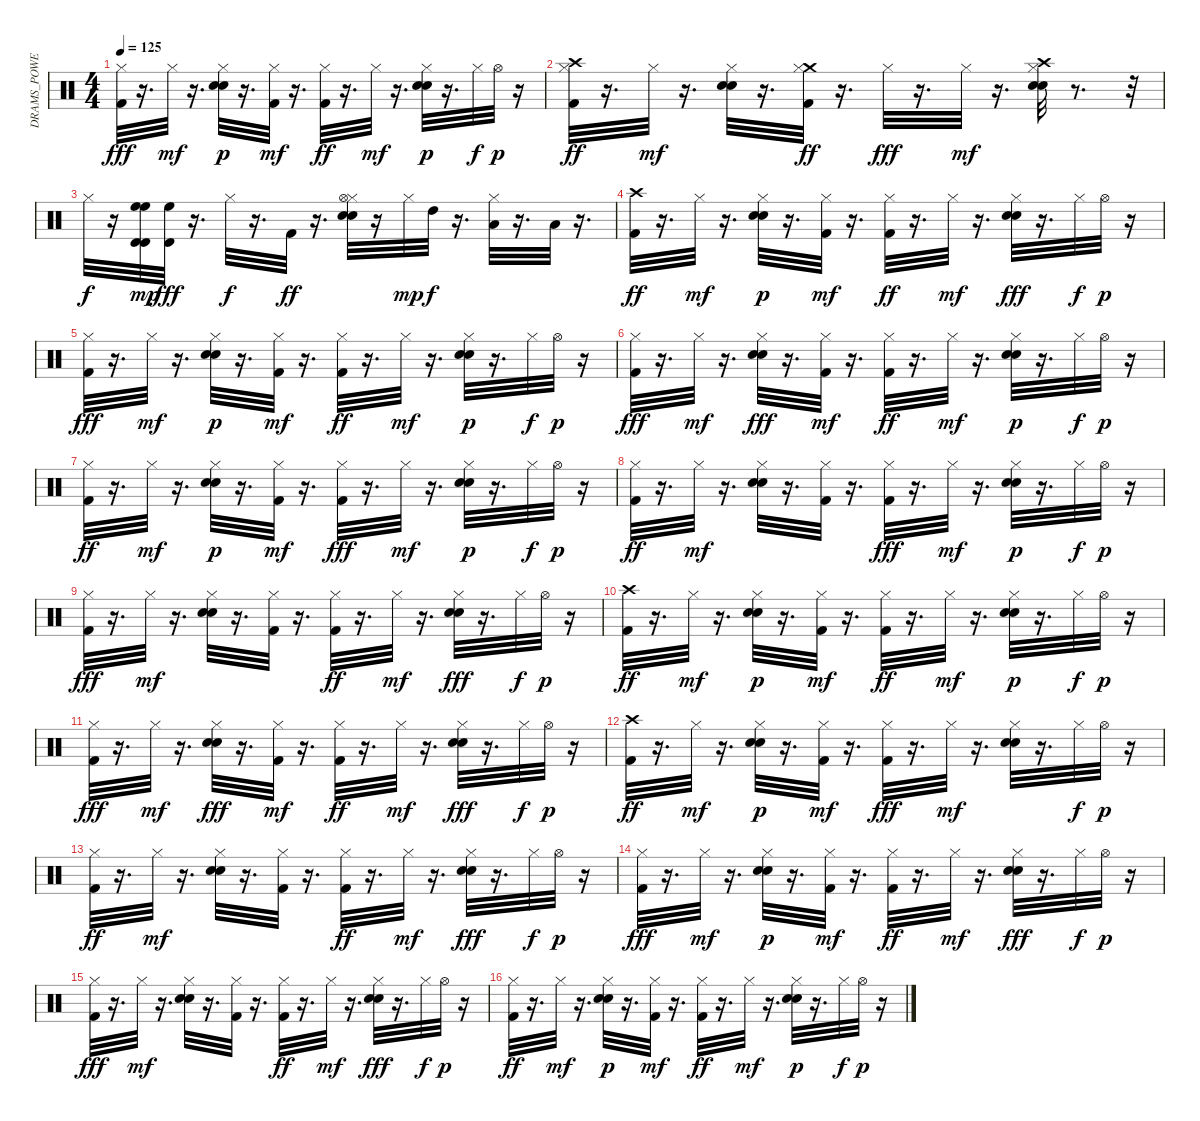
\track ("DRAMS_POWER" "DRAMS_POWE") {instrument percussion}
\staff {score}
\articulation defaults
\ts (4 4)
\tempo 125
\clef neutral
\ks c
("Kick (hit) 2" "Hi-Hat (closed)").32{dy fff} r.16{d} "Hi-Hat (closed)".32{dy mf} r.16{d} ("Electric Snare (hit)" "Hi-Hat (closed)" "Snare (hit) 2").32{dy p} r.16{d} ("Hi-Hat (closed)" "Kick (hit) 2").32{dy mf} r.16{d} ("Hi-Hat (closed)" "Kick (hit) 2").32{dy ff} r.16{d} "Hi-Hat (closed)".32{dy mf} r.16{d} ("Hi-Hat (closed)" "Electric Snare (hit)" "Snare (hit) 2").32{dy p} r.16{d} "Hi-Hat (closed)".32{dy f} "Hi-Hat (open)".32{dy p} r.16 |
("Crash high (hit)" "Hi-Hat (closed)" "Kick (hit) 2").32{dy ff} r.16{d} "Hi-Hat (closed)".32{dy mf} r.16{d} ("Snare (hit) 2" "Electric Snare (hit)" "Hi-Hat (closed)").32 r.16{d} ("Crash medium (hit)" "Hi-Hat (closed)" "Kick (hit) 2").32{dy ff} r.16{d} "Hi-Hat (closed)".32{dy fff} r.16{d} "Hi-Hat (closed)".32{dy mf} r.16{d} ("Crash high (hit)" "Electric Snare (hit)" "Snare (hit) 2" "Hi-Hat (closed)").32 r.8{d} r.32 |
"Hi-Hat (closed)".32{dy f} r.16 ("High Floor Tom (hit)" "Timbale high (hit)" "High Floor Tom (hit)" "Timbale high (hit)").32{dy mp} ("Timbale high (hit)" "High Floor Tom (hit)").32{dy fff} r.16{d} "Hi-Hat (closed)".32{dy f} r.16{d} "Kick (hit) 2".32{dy ff} r.16{d} ("Hi-Hat (closed)" "Snare (hit) 2" "Electric Snare (hit)" "Hi-Hat (open)").32 r.16 "Hi-Hat (closed)".32{dy mp} "High Tom (hit)".32{dy f} r.16{d} ("Hi-Hat (closed)" "Low Tom (hit)").32 r.16{d} "Low Floor Tom (hit)".32 r.16{d} |
("Kick (hit) 2" "Crash high (hit)").32{dy ff} r.16{d} "Hi-Hat (closed)".32{dy mf} r.16{d} ("Hi-Hat (closed)" "Electric Snare (hit)" "Snare (hit) 2").32{dy p} r.16{d} ("Hi-Hat (closed)" "Kick (hit) 2").32{dy mf} r.16{d} ("Hi-Hat (closed)" "Kick (hit) 2").32{dy ff} r.16{d} "Hi-Hat (closed)".32{dy mf} r.16{d} ("Snare (hit) 2" "Hi-Hat (closed)" "Electric Snare (hit)").32{dy fff} r.16{d} "Hi-Hat (closed)".32{dy f} "Hi-Hat (open)".32{dy p} r.16 |
("Kick (hit) 2" "Hi-Hat (closed)").32{dy fff} r.16{d} "Hi-Hat (closed)".32{dy mf} r.16{d} ("Electric Snare (hit)" "Hi-Hat (closed)" "Snare (hit) 2").32{dy p} r.16{d} ("Hi-Hat (closed)" "Kick (hit) 2").32{dy mf} r.16{d} ("Hi-Hat (closed)" "Kick (hit) 2").32{dy ff} r.16{d} "Hi-Hat (closed)".32{dy mf} r.16{d} ("Hi-Hat (closed)" "Electric Snare (hit)" "Snare (hit) 2").32{dy p} r.16{d} "Hi-Hat (closed)".32{dy f} "Hi-Hat (open)".32{dy p} r.16 |
("Kick (hit) 2" "Hi-Hat (closed)").32{dy fff} r.16{d} "Hi-Hat (closed)".32{dy mf} r.16{d} ("Hi-Hat (closed)" "Snare (hit) 2" "Electric Snare (hit)").32{dy fff} r.16{d} ("Hi-Hat (closed)" "Kick (hit) 2").32{dy mf} r.16{d} ("Hi-Hat (closed)" "Kick (hit) 2").32{dy ff} r.16{d} "Hi-Hat (closed)".32{dy mf} r.16{d} ("Hi-Hat (closed)" "Electric Snare (hit)" "Snare (hit) 2").32{dy p} r.16{d} "Hi-Hat (closed)".32{dy f} "Hi-Hat (open)".32{dy p} r.16 |
("Hi-Hat (closed)" "Kick (hit) 2").32{dy ff} r.16{d} "Hi-Hat (closed)".32{dy mf} r.16{d} ("Hi-Hat (closed)" "Electric Snare (hit)" "Snare (hit) 2").32{dy p} r.16{d} ("Hi-Hat (closed)" "Kick (hit) 2").32{dy mf} r.16{d} ("Kick (hit) 2" "Hi-Hat (closed)").32{dy fff} r.16{d} "Hi-Hat (closed)".32{dy mf} r.16{d} ("Electric Snare (hit)" "Hi-Hat (closed)" "Snare (hit) 2").32{dy p} r.16{d} "Hi-Hat (closed)".32{dy f} "Hi-Hat (open)".32{dy p} r.16 |
("Hi-Hat (closed)" "Kick (hit) 2").32{dy ff} r.16{d} "Hi-Hat (closed)".32{dy mf} r.16{d} ("Snare (hit) 2" "Electric Snare (hit)" "Hi-Hat (closed)").32 r.16{d} ("Hi-Hat (closed)" "Kick (hit) 2").32 r.16{d} ("Kick (hit) 2" "Hi-Hat (closed)").32{dy fff} r.16{d} "Hi-Hat (closed)".32{dy mf} r.16{d} ("Electric Snare (hit)" "Hi-Hat (closed)" "Snare (hit) 2").32{dy p} r.16{d} "Hi-Hat (closed)".32{dy f} "Hi-Hat (open)".32{dy p} r.16 |
("Kick (hit) 2" "Hi-Hat (closed)").32{dy fff} r.16{d} "Hi-Hat (closed)".32{dy mf} r.16{d} ("Snare (hit) 2" "Electric Snare (hit)" "Hi-Hat (closed)").32 r.16{d} ("Hi-Hat (closed)" "Kick (hit) 2").32 r.16{d} ("Hi-Hat (closed)" "Kick (hit) 2").32{dy ff} r.16{d} "Hi-Hat (closed)".32{dy mf} r.16{d} ("Snare (hit) 2" "Hi-Hat (closed)" "Electric Snare (hit)").32{dy fff} r.16{d} "Hi-Hat (closed)".32{dy f} "Hi-Hat (open)".32{dy p} r.16 |
("Crash high (hit)" "Kick (hit) 2").32{dy ff} r.16{d} "Hi-Hat (closed)".32{dy mf} r.16{d} ("Electric Snare (hit)" "Hi-Hat (closed)" "Snare (hit) 2").32{dy p} r.16{d} ("Kick (hit) 2" "Hi-Hat (closed)").32{dy mf} r.16{d} ("Hi-Hat (closed)" "Kick (hit) 2").32{dy ff} r.16{d} "Hi-Hat (closed)".32{dy mf} r.16{d} ("Hi-Hat (closed)" "Electric Snare (hit)" "Snare (hit) 2").32{dy p} r.16{d} "Hi-Hat (closed)".32{dy f} "Hi-Hat (open)".32{dy p} r.16 |
("Kick (hit) 2" "Hi-Hat (closed)").32{dy fff} r.16{d} "Hi-Hat (closed)".32{dy mf} r.16{d} ("Hi-Hat (closed)" "Snare (hit) 2" "Electric Snare (hit)").32{dy fff} r.16{d} ("Kick (hit) 2" "Hi-Hat (closed)").32{dy mf} r.16{d} ("Hi-Hat (closed)" "Kick (hit) 2").32{dy ff} r.16{d} "Hi-Hat (closed)".32{dy mf} r.16{d} ("Snare (hit) 2" "Hi-Hat (closed)" "Electric Snare (hit)").32{dy fff} r.16{d} "Hi-Hat (closed)".32{dy f} "Hi-Hat (open)".32{dy p} r.16 |
("Crash high (hit)" "Kick (hit) 2").32{dy ff} r.16{d} "Hi-Hat (closed)".32{dy mf} r.16{d} ("Electric Snare (hit)" "Hi-Hat (closed)" "Snare (hit) 2").32{dy p} r.16{d} ("Kick (hit) 2" "Hi-Hat (closed)").32{dy mf} r.16{d} ("Kick (hit) 2" "Hi-Hat (closed)").32{dy fff} r.16{d} "Hi-Hat (closed)".32{dy mf} r.16{d} ("Snare (hit) 2" "Electric Snare (hit)" "Hi-Hat (closed)").32 r.16{d} "Hi-Hat (closed)".32{dy f} "Hi-Hat (open)".32{dy p} r.16 |
("Hi-Hat (closed)" "Kick (hit) 2").32{dy ff} r.16{d} "Hi-Hat (closed)".32{dy mf} r.16{d} ("Snare (hit) 2" "Electric Snare (hit)" "Hi-Hat (closed)").32 r.16{d} ("Hi-Hat (closed)" "Kick (hit) 2").32 r.16{d} ("Hi-Hat (closed)" "Kick (hit) 2").32{dy ff} r.16{d} "Hi-Hat (closed)".32{dy mf} r.16{d} ("Snare (hit) 2" "Hi-Hat (closed)" "Electric Snare (hit)").32{dy fff} r.16{d} "Hi-Hat (closed)".32{dy f} "Hi-Hat (open)".32{dy p} r.16 |
("Kick (hit) 2" "Hi-Hat (closed)").32{dy fff} r.16{d} "Hi-Hat (closed)".32{dy mf} r.16{d} ("Electric Snare (hit)" "Hi-Hat (closed)" "Snare (hit) 2").32{dy p} r.16{d} ("Kick (hit) 2" "Hi-Hat (closed)").32{dy mf} r.16{d} ("Hi-Hat (closed)" "Kick (hit) 2").32{dy ff} r.16{d} "Hi-Hat (closed)".32{dy mf} r.16{d} ("Hi-Hat (closed)" "Snare (hit) 2" "Electric Snare (hit)").32{dy fff} r.16{d} "Hi-Hat (closed)".32{dy f} "Hi-Hat (open)".32{dy p} r.16 |
("Kick (hit) 2" "Hi-Hat (closed)").32{dy fff} r.16{d} "Hi-Hat (closed)".32{dy mf} r.16{d} ("Electric Snare (hit)" "Snare (hit) 2" "Hi-Hat (closed)").32 r.16{d} ("Kick (hit) 2" "Hi-Hat (closed)").32 r.16{d} ("Hi-Hat (closed)" "Kick (hit) 2").32{dy ff} r.16{d} "Hi-Hat (closed)".32{dy mf} r.16{d} ("Hi-Hat (closed)" "Snare (hit) 2" "Electric Snare (hit)").32{dy fff} r.16{d} "Hi-Hat (closed)".32{dy f} "Hi-Hat (open)".32{dy p} r.16 |
("Hi-Hat (closed)" "Kick (hit) 2").32{dy ff} r.16{d} "Hi-Hat (closed)".32{dy mf} r.16{d} ("Electric Snare (hit)" "Hi-Hat (closed)" "Snare (hit) 2").32{dy p} r.16{d} ("Kick (hit) 2" "Hi-Hat (closed)").32{dy mf} r.16{d} ("Hi-Hat (closed)" "Kick (hit) 2").32{dy ff} r.16{d} "Hi-Hat (closed)".32{dy mf} r.16{d} ("Electric Snare (hit)" "Hi-Hat (closed)" "Snare (hit) 2").32{dy p} r.16{d} "Hi-Hat (closed)".32{dy f} "Hi-Hat (open)".32{dy p} r.16
